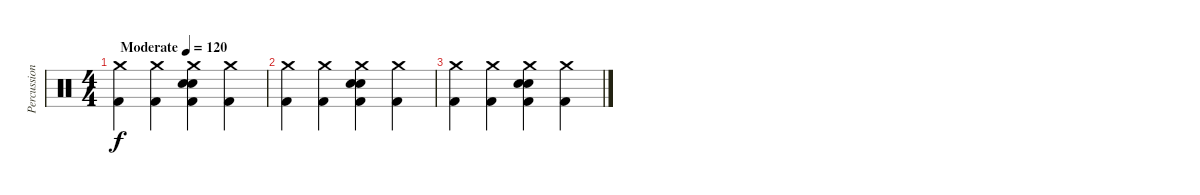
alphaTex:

\track ("Percussion" "Percussion") {instrument percussion}
\staff {score}
\articulation defaults
\ts (4 4)
\tempo (120 "Moderate")
\clef neutral
\ks c
("Crash medium (hit)" "Kick (hit) 2").4{dy f} ("Crash medium (hit)" "Kick (hit) 2").4 ("Crash medium (hit)" "Snare (hit) 2" "Electric Snare (hit)" "Kick (hit) 2").4 ("Crash medium (hit)" "Kick (hit) 2").4 |
("Crash medium (hit)" "Kick (hit) 2").4 ("Crash medium (hit)" "Kick (hit) 2").4 ("Crash medium (hit)" "Snare (hit) 2" "Electric Snare (hit)" "Kick (hit) 2").4 ("Crash medium (hit)" "Kick (hit) 2").4 |
("Crash medium (hit)" "Kick (hit) 2").4 ("Crash medium (hit)" "Kick (hit) 2").4 ("Crash medium (hit)" "Snare (hit) 2" "Electric Snare (hit)" "Kick (hit) 2").4 ("Crash medium (hit)" "Kick (hit) 2").4
